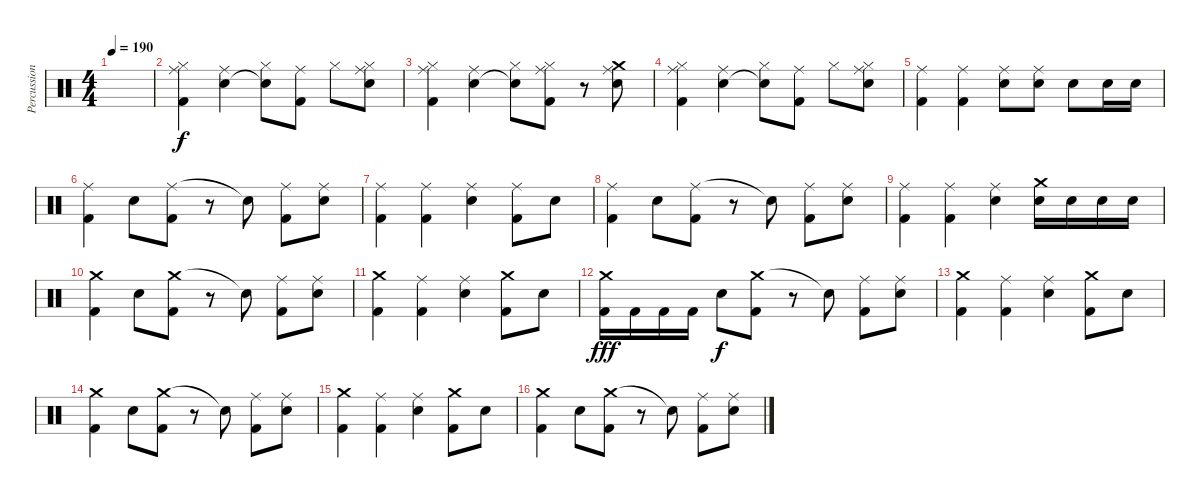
\track ("Percussions" "Percussion") {instrument percussion}
\staff {score}
\articulation defaults
\ts (4 4)
\tempo 190
\clef neutral
\ks c
|
("Hi-Hat (closed)" "Ride (middle)" "Kick (hit) 2").4 ("Ride (middle)" "Electric Snare (hit)").4 ("Hi-Hat (closed)" "Snare (hit)"{t}).8 ("Ride (middle)" "Kick (hit) 2").8 "Hi-Hat (closed)".8 ("Hi-Hat (closed)" "Ride (middle)" "Electric Snare (hit)").8 |
("Hi-Hat (closed)" "Ride (middle)" "Kick (hit) 2").4 ("Ride (middle)" "Electric Snare (hit)").4 ("Hi-Hat (closed)" "Snare (hit)"{t}).8 ("Hi-Hat (closed)" "Ride (middle)" "Kick (hit) 2").8 r.8 ("Crash medium (hit)" "Electric Snare (hit)" "Ride (middle)").8 |
("Hi-Hat (closed)" "Ride (middle)" "Kick (hit) 2").4 ("Ride (middle)" "Electric Snare (hit)").4 ("Hi-Hat (closed)" "Snare (hit)"{t}).8 ("Ride (middle)" "Kick (hit) 2").8 "Hi-Hat (closed)".8 ("Hi-Hat (closed)" "Ride (middle)" "Electric Snare (hit)").8 |
("Ride (middle)" "Kick (hit) 2").4 ("Ride (middle)" "Kick (hit) 2").4 ("Ride (middle)" "Electric Snare (hit)").8 ("Ride (middle)" "Electric Snare (hit)").8 "Electric Snare (hit)".8 "Electric Snare (hit)".16 "Electric Snare (hit)".16 |
("Ride (middle)" "Kick (hit) 2").4 "Electric Snare (hit)".8 ("Ride (middle)" "Kick (hit) 2").8 r.8 "Snare (hit)"{t}.8 ("Ride (middle)" "Kick (hit) 2").8 ("Ride (middle)" "Electric Snare (hit)").8 |
("Ride (middle)" "Kick (hit) 2").4 ("Ride (middle)" "Kick (hit) 2").4 ("Ride (middle)" "Electric Snare (hit)").4 ("Ride (middle)" "Kick (hit) 2").8 "Electric Snare (hit)".8 |
("Ride (middle)" "Kick (hit) 2").4 "Electric Snare (hit)".8 ("Ride (middle)" "Kick (hit) 2").8 r.8 "Snare (hit)"{t}.8 ("Ride (middle)" "Kick (hit) 2").8 ("Ride (middle)" "Electric Snare (hit)").8 |
("Ride (middle)" "Kick (hit) 2").4 ("Ride (middle)" "Kick (hit) 2").4 ("Ride (middle)" "Electric Snare (hit)").4 ("Crash medium (hit)" "Electric Snare (hit)").16 "Electric Snare (hit)".16 "Electric Snare (hit)".16 "Electric Snare (hit)".16 |
("Crash medium (hit)" "Kick (hit) 2").4 "Electric Snare (hit)".8 ("Crash medium (hit)" "Kick (hit) 2").8 r.8 "Snare (hit)"{t}.8 ("Ride (middle)" "Kick (hit) 2").8 ("Ride (middle)" "Electric Snare (hit)").8 |
("Crash medium (hit)" "Kick (hit) 2").4 ("Ride (middle)" "Kick (hit) 2").4 ("Ride (middle)" "Electric Snare (hit)").4 ("Crash medium (hit)" "Kick (hit) 2").8 "Electric Snare (hit)".8 |
("Crash medium (hit)" "Kick (hit) 2").16{dy fff} "Kick (hit) 2".16 "Kick (hit) 2".16 "Kick (hit) 2".16 "Electric Snare (hit)".8{dy f} ("Crash medium (hit)" "Kick (hit) 2").8 r.8 "Snare (hit)"{t}.8 ("Ride (middle)" "Kick (hit) 2").8 ("Ride (middle)" "Electric Snare (hit)").8 |
("Crash medium (hit)" "Kick (hit) 2").4 ("Ride (middle)" "Kick (hit) 2").4 ("Ride (middle)" "Electric Snare (hit)").4 ("Crash medium (hit)" "Kick (hit) 2").8 "Electric Snare (hit)".8 |
("Crash medium (hit)" "Kick (hit) 2").4 "Electric Snare (hit)".8 ("Crash medium (hit)" "Kick (hit) 2").8 r.8 "Snare (hit)"{t}.8 ("Ride (middle)" "Kick (hit) 2").8 ("Ride (middle)" "Electric Snare (hit)").8 |
("Crash medium (hit)" "Kick (hit) 2").4 ("Ride (middle)" "Kick (hit) 2").4 ("Ride (middle)" "Electric Snare (hit)").4 ("Crash medium (hit)" "Kick (hit) 2").8 "Electric Snare (hit)".8 |
("Crash medium (hit)" "Kick (hit) 2").4 "Electric Snare (hit)".8 ("Crash medium (hit)" "Kick (hit) 2").8 r.8 "Snare (hit)"{t}.8 ("Ride (middle)" "Kick (hit) 2").8 ("Ride (middle)" "Electric Snare (hit)").8
